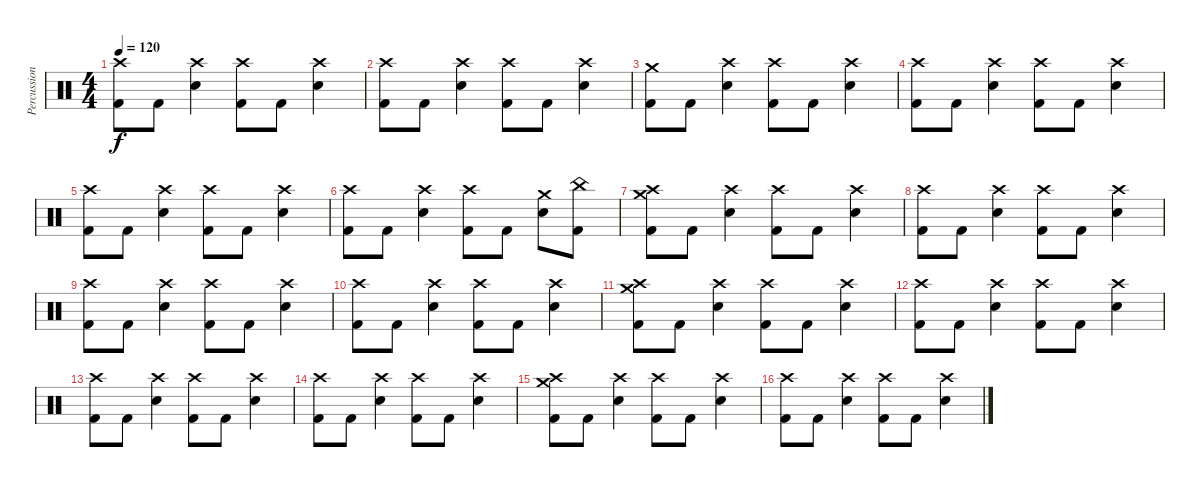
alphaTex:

\track ("Percussion" "Percussion") {instrument percussion}
\staff {score}
\articulation defaults
\ts (4 4)
\tempo 120
\clef neutral
\ks c
("Crash high (hit)" "Kick (hit) 2").8{dy f} "Kick (hit) 2".8 ("Crash high (hit)" "Snare (hit) 2").4 ("Crash high (hit)" "Kick (hit) 2").8 "Kick (hit) 2".8 ("Crash high (hit)" "Snare (hit) 2").4 |
("Crash high (hit)" "Kick (hit) 2").8 "Kick (hit) 2".8 ("Crash high (hit)" "Snare (hit) 2").4 ("Crash high (hit)" "Kick (hit) 2").8 "Kick (hit) 2".8 ("Crash high (hit)" "Snare (hit) 2").4 |
("Crash medium (hit)" "Kick (hit) 2").8 "Kick (hit) 2".8 ("Crash high (hit)" "Snare (hit) 2").4 ("Crash high (hit)" "Kick (hit) 2").8 "Kick (hit) 2".8 ("Crash high (hit)" "Snare (hit) 2").4 |
("Crash high (hit)" "Kick (hit) 2").8 "Kick (hit) 2".8 ("Crash high (hit)" "Snare (hit) 2").4 ("Crash high (hit)" "Kick (hit) 2").8 "Kick (hit) 2".8 ("Crash high (hit)" "Snare (hit) 2").4 |
("Crash high (hit)" "Kick (hit) 2").8 "Kick (hit) 2".8 ("Crash high (hit)" "Snare (hit) 2").4 ("Crash high (hit)" "Kick (hit) 2").8 "Kick (hit) 2".8 ("Crash high (hit)" "Snare (hit) 2").4 |
("Crash high (hit)" "Kick (hit) 2").8 "Kick (hit) 2".8 ("Crash high (hit)" "Snare (hit) 2").4 ("Crash high (hit)" "Kick (hit) 2").8 "Kick (hit) 2".8 ("Crash medium (hit)" "Snare (hit) 2").8 ("China (hit)" "Kick (hit) 2").8 |
("Crash medium (hit)" "Crash high (hit)" "Kick (hit) 2").8 "Kick (hit) 2".8 ("Crash high (hit)" "Snare (hit) 2").4 ("Crash high (hit)" "Kick (hit) 2").8 "Kick (hit) 2".8 ("Crash high (hit)" "Snare (hit) 2").4 |
("Crash high (hit)" "Kick (hit) 2").8 "Kick (hit) 2".8 ("Crash high (hit)" "Snare (hit) 2").4 ("Crash high (hit)" "Kick (hit) 2").8 "Kick (hit) 2".8 ("Crash high (hit)" "Snare (hit) 2").4 |
("Crash high (hit)" "Kick (hit) 2").8 "Kick (hit) 2".8 ("Crash high (hit)" "Snare (hit) 2").4 ("Crash high (hit)" "Kick (hit) 2").8 "Kick (hit) 2".8 ("Crash high (hit)" "Snare (hit) 2").4 |
("Crash high (hit)" "Kick (hit) 2").8 "Kick (hit) 2".8 ("Crash high (hit)" "Snare (hit) 2").4 ("Crash high (hit)" "Kick (hit) 2").8 "Kick (hit) 2".8 ("Crash high (hit)" "Snare (hit) 2").4 |
("Crash medium (hit)" "Crash high (hit)" "Kick (hit) 2").8 "Kick (hit) 2".8 ("Crash high (hit)" "Snare (hit) 2").4 ("Crash high (hit)" "Kick (hit) 2").8 "Kick (hit) 2".8 ("Crash high (hit)" "Snare (hit) 2").4 |
("Crash high (hit)" "Kick (hit) 2").8 "Kick (hit) 2".8 ("Crash high (hit)" "Snare (hit) 2").4 ("Crash high (hit)" "Kick (hit) 2").8 "Kick (hit) 2".8 ("Crash high (hit)" "Snare (hit) 2").4 |
("Crash high (hit)" "Kick (hit) 2").8 "Kick (hit) 2".8 ("Crash high (hit)" "Snare (hit) 2").4 ("Crash high (hit)" "Kick (hit) 2").8 "Kick (hit) 2".8 ("Crash high (hit)" "Snare (hit) 2").4 |
("Crash high (hit)" "Kick (hit) 2").8 "Kick (hit) 2".8 ("Crash high (hit)" "Snare (hit) 2").4 ("Crash high (hit)" "Kick (hit) 2").8 "Kick (hit) 2".8 ("Crash high (hit)" "Snare (hit) 2").4 |
("Crash medium (hit)" "Crash high (hit)" "Kick (hit) 2").8 "Kick (hit) 2".8 ("Crash high (hit)" "Snare (hit) 2").4 ("Crash high (hit)" "Kick (hit) 2").8 "Kick (hit) 2".8 ("Crash high (hit)" "Snare (hit) 2").4 |
("Crash high (hit)" "Kick (hit) 2").8 "Kick (hit) 2".8 ("Crash high (hit)" "Snare (hit) 2").4 ("Crash high (hit)" "Kick (hit) 2").8 "Kick (hit) 2".8 ("Crash high (hit)" "Snare (hit) 2").4
